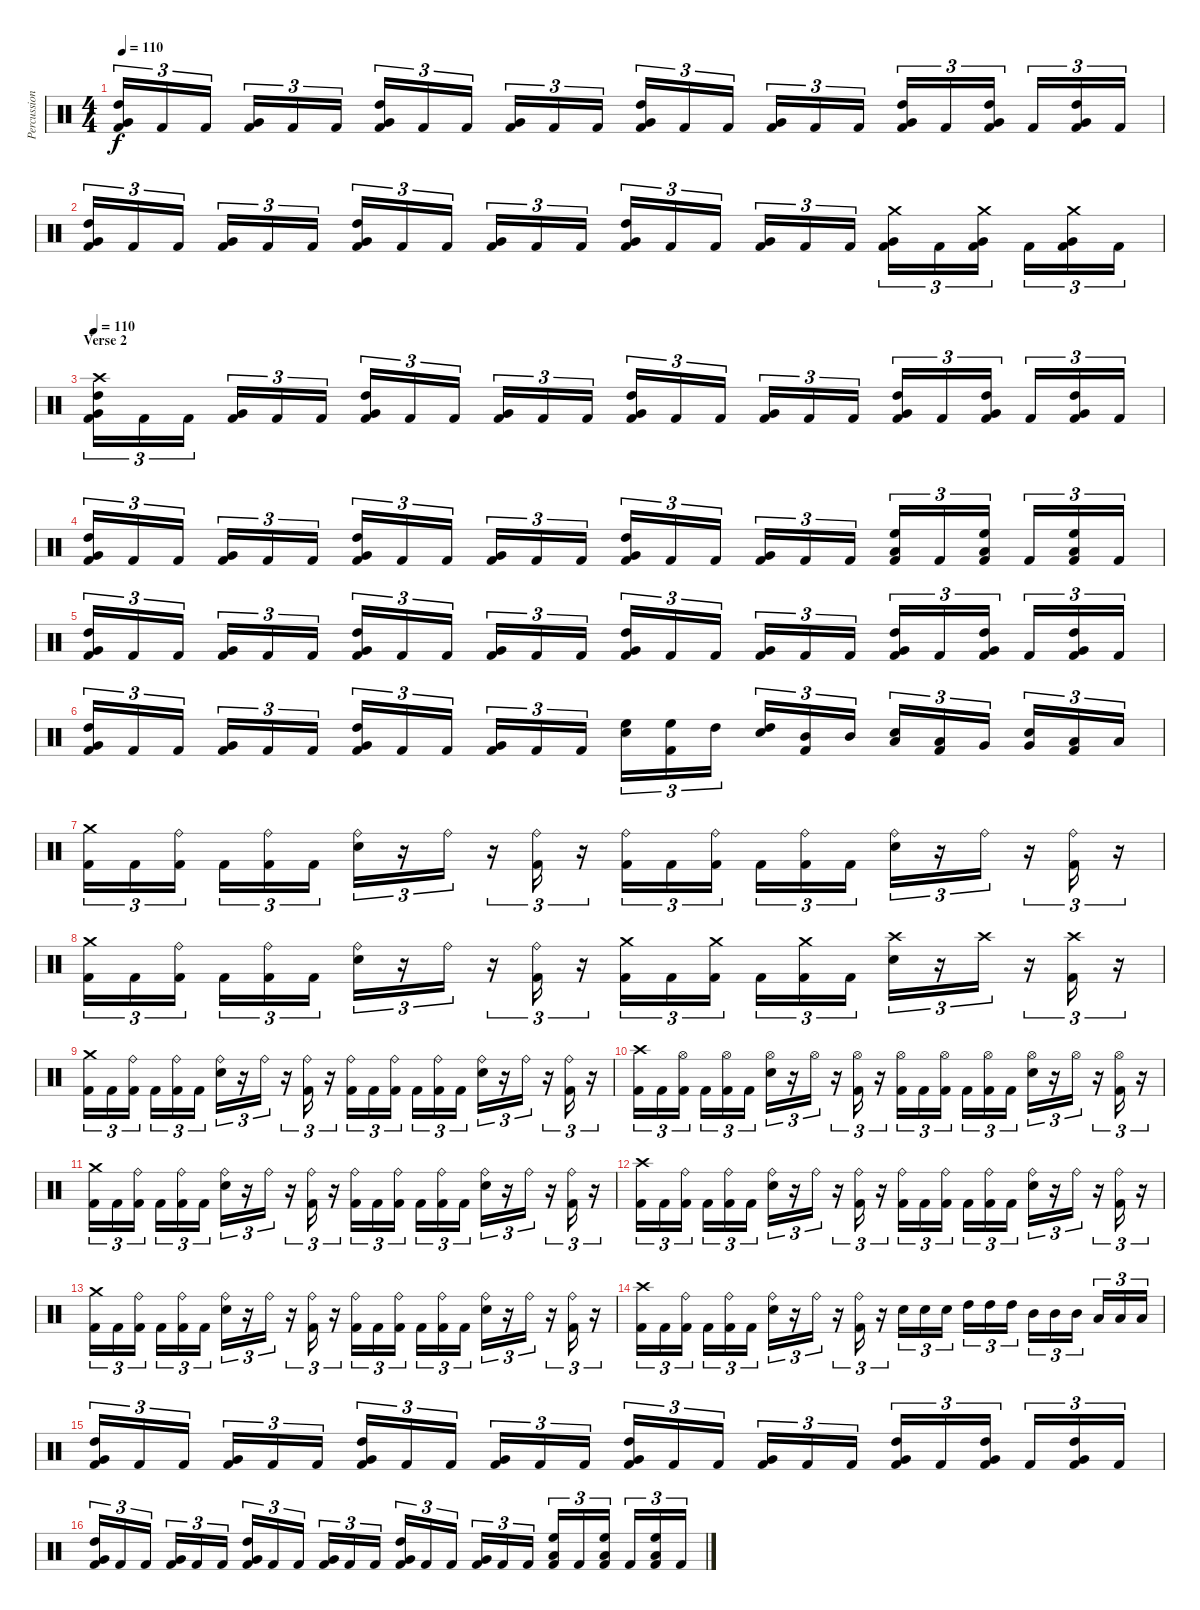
\track ("Percussion" "Percussion") {instrument percussion}
\staff {score}
\articulation defaults
\ts (4 4)
\tempo 110
\clef neutral
\ks c
("High Tom (hit)" "Very Low Tom (hit)" "Kick (hit) 2").16{tu (3 2) dy f volume 13} "Kick (hit) 2".16{tu (3 2)} "Kick (hit) 2".16{tu (3 2)} ("Very Low Tom (hit)" "Kick (hit) 2").16{tu (3 2)} "Kick (hit) 2".16{tu (3 2)} "Kick (hit) 2".16{tu (3 2)} ("High Tom (hit)" "Very Low Tom (hit)" "Kick (hit) 2").16{tu (3 2)} "Kick (hit) 2".16{tu (3 2)} "Kick (hit) 2".16{tu (3 2)} ("Very Low Tom (hit)" "Kick (hit) 2").16{tu (3 2)} "Kick (hit) 2".16{tu (3 2)} "Kick (hit) 2".16{tu (3 2)} ("High Tom (hit)" "Very Low Tom (hit)" "Kick (hit) 2").16{tu (3 2)} "Kick (hit) 2".16{tu (3 2)} "Kick (hit) 2".16{tu (3 2)} ("Very Low Tom (hit)" "Kick (hit) 2").16{tu (3 2)} "Kick (hit) 2".16{tu (3 2)} "Kick (hit) 2".16{tu (3 2)} ("High Tom (hit)" "Very Low Tom (hit)" "Kick (hit) 2").16{tu (3 2)} "Kick (hit) 2".16{tu (3 2)} ("High Tom (hit)" "Very Low Tom (hit)" "Kick (hit) 2").16{tu (3 2)} "Kick (hit) 2".16{tu (3 2)} ("High Tom (hit)" "Very Low Tom (hit)" "Kick (hit) 2").16{tu (3 2)} "Kick (hit) 2".16{tu (3 2)} |
("High Tom (hit)" "Very Low Tom (hit)" "Kick (hit) 2").16{tu (3 2)} "Kick (hit) 2".16{tu (3 2)} "Kick (hit) 2".16{tu (3 2)} ("Very Low Tom (hit)" "Kick (hit) 2").16{tu (3 2)} "Kick (hit) 2".16{tu (3 2)} "Kick (hit) 2".16{tu (3 2)} ("High Tom (hit)" "Very Low Tom (hit)" "Kick (hit) 2").16{tu (3 2)} "Kick (hit) 2".16{tu (3 2)} "Kick (hit) 2".16{tu (3 2)} ("Very Low Tom (hit)" "Kick (hit) 2").16{tu (3 2)} "Kick (hit) 2".16{tu (3 2)} "Kick (hit) 2".16{tu (3 2)} ("High Tom (hit)" "Very Low Tom (hit)" "Kick (hit) 2").16{tu (3 2)} "Kick (hit) 2".16{tu (3 2)} "Kick (hit) 2".16{tu (3 2)} ("Very Low Tom (hit)" "Kick (hit) 2").16{tu (3 2)} "Kick (hit) 2".16{tu (3 2)} "Kick (hit) 2".16{tu (3 2)} ("Crash medium (hit)" "Very Low Tom (hit)" "Kick (hit) 2").16{tu (3 2)} "Kick (hit) 2".16{tu (3 2)} ("Crash medium (hit)" "Very Low Tom (hit)" "Kick (hit) 2").16{tu (3 2)} "Kick (hit) 2".16{tu (3 2)} ("Crash medium (hit)" "Very Low Tom (hit)" "Kick (hit) 2").16{tu (3 2)} "Kick (hit) 2".16{tu (3 2)} |
\section ("" "Verse 2")
\tempo 110
("Crash high (hit)" "High Tom (hit)" "Very Low Tom (hit)" "Kick (hit) 2").16{tu (3 2)} "Kick (hit) 2".16{tu (3 2)} "Kick (hit) 2".16{tu (3 2)} ("Very Low Tom (hit)" "Kick (hit) 2").16{tu (3 2)} "Kick (hit) 2".16{tu (3 2)} "Kick (hit) 2".16{tu (3 2)} ("High Tom (hit)" "Very Low Tom (hit)" "Kick (hit) 2").16{tu (3 2)} "Kick (hit) 2".16{tu (3 2)} "Kick (hit) 2".16{tu (3 2)} ("Very Low Tom (hit)" "Kick (hit) 2").16{tu (3 2)} "Kick (hit) 2".16{tu (3 2)} "Kick (hit) 2".16{tu (3 2)} ("High Tom (hit)" "Very Low Tom (hit)" "Kick (hit) 2").16{tu (3 2)} "Kick (hit) 2".16{tu (3 2)} "Kick (hit) 2".16{tu (3 2)} ("Very Low Tom (hit)" "Kick (hit) 2").16{tu (3 2)} "Kick (hit) 2".16{tu (3 2)} "Kick (hit) 2".16{tu (3 2)} ("High Tom (hit)" "Very Low Tom (hit)" "Kick (hit) 2").16{tu (3 2)} "Kick (hit) 2".16{tu (3 2)} ("High Tom (hit)" "Very Low Tom (hit)" "Kick (hit) 2").16{tu (3 2)} "Kick (hit) 2".16{tu (3 2)} ("High Tom (hit)" "Very Low Tom (hit)" "Kick (hit) 2").16{tu (3 2)} "Kick (hit) 2".16{tu (3 2)} |
("High Tom (hit)" "Very Low Tom (hit)" "Kick (hit) 2").16{tu (3 2)} "Kick (hit) 2".16{tu (3 2)} "Kick (hit) 2".16{tu (3 2)} ("Very Low Tom (hit)" "Kick (hit) 2").16{tu (3 2)} "Kick (hit) 2".16{tu (3 2)} "Kick (hit) 2".16{tu (3 2)} ("High Tom (hit)" "Very Low Tom (hit)" "Kick (hit) 2").16{tu (3 2)} "Kick (hit) 2".16{tu (3 2)} "Kick (hit) 2".16{tu (3 2)} ("Very Low Tom (hit)" "Kick (hit) 2").16{tu (3 2)} "Kick (hit) 2".16{tu (3 2)} "Kick (hit) 2".16{tu (3 2)} ("High Tom (hit)" "Very Low Tom (hit)" "Kick (hit) 2").16{tu (3 2)} "Kick (hit) 2".16{tu (3 2)} "Kick (hit) 2".16{tu (3 2)} ("Very Low Tom (hit)" "Kick (hit) 2").16{tu (3 2)} "Kick (hit) 2".16{tu (3 2)} "Kick (hit) 2".16{tu (3 2)} ("High Floor Tom (hit)" "Low Tom (hit)" "Kick (hit) 2").16{tu (3 2)} "Kick (hit) 2".16{tu (3 2)} ("High Floor Tom (hit)" "Low Tom (hit)" "Kick (hit) 2").16{tu (3 2)} "Kick (hit) 2".16{tu (3 2)} ("High Floor Tom (hit)" "Low Tom (hit)" "Kick (hit) 2").16{tu (3 2)} "Kick (hit) 2".16{tu (3 2)} |
("High Tom (hit)" "Very Low Tom (hit)" "Kick (hit) 2").16{tu (3 2)} "Kick (hit) 2".16{tu (3 2)} "Kick (hit) 2".16{tu (3 2)} ("Very Low Tom (hit)" "Kick (hit) 2").16{tu (3 2)} "Kick (hit) 2".16{tu (3 2)} "Kick (hit) 2".16{tu (3 2)} ("High Tom (hit)" "Very Low Tom (hit)" "Kick (hit) 2").16{tu (3 2)} "Kick (hit) 2".16{tu (3 2)} "Kick (hit) 2".16{tu (3 2)} ("Very Low Tom (hit)" "Kick (hit) 2").16{tu (3 2)} "Kick (hit) 2".16{tu (3 2)} "Kick (hit) 2".16{tu (3 2)} ("High Tom (hit)" "Very Low Tom (hit)" "Kick (hit) 2").16{tu (3 2)} "Kick (hit) 2".16{tu (3 2)} "Kick (hit) 2".16{tu (3 2)} ("Very Low Tom (hit)" "Kick (hit) 2").16{tu (3 2)} "Kick (hit) 2".16{tu (3 2)} "Kick (hit) 2".16{tu (3 2)} ("High Tom (hit)" "Very Low Tom (hit)" "Kick (hit) 2").16{tu (3 2)} "Kick (hit) 2".16{tu (3 2)} ("High Tom (hit)" "Very Low Tom (hit)" "Kick (hit) 2").16{tu (3 2)} "Kick (hit) 2".16{tu (3 2)} ("High Tom (hit)" "Very Low Tom (hit)" "Kick (hit) 2").16{tu (3 2)} "Kick (hit) 2".16{tu (3 2)} |
("High Tom (hit)" "Very Low Tom (hit)" "Kick (hit) 2").16{tu (3 2)} "Kick (hit) 2".16{tu (3 2)} "Kick (hit) 2".16{tu (3 2)} ("Very Low Tom (hit)" "Kick (hit) 2").16{tu (3 2)} "Kick (hit) 2".16{tu (3 2)} "Kick (hit) 2".16{tu (3 2)} ("High Tom (hit)" "Very Low Tom (hit)" "Kick (hit) 2").16{tu (3 2)} "Kick (hit) 2".16{tu (3 2)} "Kick (hit) 2".16{tu (3 2)} ("Very Low Tom (hit)" "Kick (hit) 2").16{tu (3 2)} "Kick (hit) 2".16{tu (3 2)} "Kick (hit) 2".16{tu (3 2)} ("Electric Snare (hit)" "High Floor Tom (hit)").16{tu (3 2)} ("High Floor Tom (hit)" "Kick (hit) 2").16{tu (3 2)} "High Tom (hit)".16{tu (3 2)} ("Electric Snare (hit)" "High Tom (hit)").16{tu (3 2)} ("Mid Tom (hit)" "Kick (hit) 2").16{tu (3 2)} "Mid Tom (hit)".16{tu (3 2)} ("Electric Snare (hit)" "Low Tom (hit)").16{tu (3 2)} ("Low Tom (hit)" "Kick (hit) 2").16{tu (3 2)} "Very Low Tom (hit)".16{tu (3 2)} ("Electric Snare (hit)" "Very Low Tom (hit)").16{tu (3 2)} ("Low Floor Tom (hit)" "Kick (hit) 2").16{tu (3 2)} "Low Floor Tom (hit)".16{tu (3 2)} |
("Crash medium (hit)" "Kick (hit) 2").16{tu (3 2)} "Kick (hit) 2".16{tu (3 2)} ("Ride (bell)" "Kick (hit) 2").16{tu (3 2)} "Kick (hit) 2".16{tu (3 2)} ("Ride (bell)" "Kick (hit) 2").16{tu (3 2)} "Kick (hit) 2".16{tu (3 2)} ("Ride (bell)" "Electric Snare (hit)").16{tu (3 2)} r.16{tu (3 2)} "Ride (bell)".16{tu (3 2)} r.16{tu (3 2)} ("Ride (bell)" "Kick (hit) 2").16{tu (3 2)} r.16{tu (3 2)} ("Ride (bell)" "Kick (hit) 2").16{tu (3 2)} "Kick (hit) 2".16{tu (3 2)} ("Ride (bell)" "Kick (hit) 2").16{tu (3 2)} "Kick (hit) 2".16{tu (3 2)} ("Ride (bell)" "Kick (hit) 2").16{tu (3 2)} "Kick (hit) 2".16{tu (3 2)} ("Ride (bell)" "Electric Snare (hit)").16{tu (3 2)} r.16{tu (3 2)} "Ride (bell)".16{tu (3 2)} r.16{tu (3 2)} ("Ride (bell)" "Kick (hit) 2").16{tu (3 2)} r.16{tu (3 2)} |
("Crash medium (hit)" "Kick (hit) 2").16{tu (3 2)} "Kick (hit) 2".16{tu (3 2)} ("Ride (bell)" "Kick (hit) 2").16{tu (3 2)} "Kick (hit) 2".16{tu (3 2)} ("Ride (bell)" "Kick (hit) 2").16{tu (3 2)} "Kick (hit) 2".16{tu (3 2)} ("Ride (bell)" "Electric Snare (hit)").16{tu (3 2)} r.16{tu (3 2)} "Ride (bell)".16{tu (3 2)} r.16{tu (3 2)} ("Ride (bell)" "Kick (hit) 2").16{tu (3 2)} r.16{tu (3 2)} ("Crash medium (hit)" "Kick (hit) 2").16{tu (3 2)} "Kick (hit) 2".16{tu (3 2)} ("Crash medium (hit)" "Kick (hit) 2").16{tu (3 2)} "Kick (hit) 2".16{tu (3 2)} ("Crash medium (hit)" "Kick (hit) 2").16{tu (3 2)} "Kick (hit) 2".16{tu (3 2)} ("Crash high (hit)" "Electric Snare (hit)").16{tu (3 2)} r.16{tu (3 2)} "Crash high (hit)".16{tu (3 2)} r.16{tu (3 2)} ("Crash high (hit)" "Kick (hit) 2").16{tu (3 2)} r.16{tu (3 2)} |
("Crash medium (hit)" "Kick (hit) 2").16{tu (3 2)} "Kick (hit) 2".16{tu (3 2)} ("Ride (bell)" "Kick (hit) 2").16{tu (3 2)} "Kick (hit) 2".16{tu (3 2)} ("Ride (bell)" "Kick (hit) 2").16{tu (3 2)} "Kick (hit) 2".16{tu (3 2)} ("Ride (bell)" "Electric Snare (hit)").16{tu (3 2)} r.16{tu (3 2)} "Ride (bell)".16{tu (3 2)} r.16{tu (3 2)} ("Ride (bell)" "Kick (hit) 2").16{tu (3 2)} r.16{tu (3 2)} ("Ride (bell)" "Kick (hit) 2").16{tu (3 2)} "Kick (hit) 2".16{tu (3 2)} ("Ride (bell)" "Kick (hit) 2").16{tu (3 2)} "Kick (hit) 2".16{tu (3 2)} ("Ride (bell)" "Kick (hit) 2").16{tu (3 2)} "Kick (hit) 2".16{tu (3 2)} ("Ride (bell)" "Electric Snare (hit)").16{tu (3 2)} r.16{tu (3 2)} "Ride (bell)".16{tu (3 2)} r.16{tu (3 2)} ("Ride (bell)" "Kick (hit) 2").16{tu (3 2)} r.16{tu (3 2)} |
("Crash high (hit)" "Kick (hit) 2").16{tu (3 2)} "Kick (hit) 2".16{tu (3 2)} ("Hi-Hat (open)" "Kick (hit) 2").16{tu (3 2)} "Kick (hit) 2".16{tu (3 2)} ("Hi-Hat (open)" "Kick (hit) 2").16{tu (3 2)} "Kick (hit) 2".16{tu (3 2)} ("Hi-Hat (open)" "Electric Snare (hit)").16{tu (3 2)} r.16{tu (3 2)} "Hi-Hat (open)".16{tu (3 2)} r.16{tu (3 2)} ("Hi-Hat (open)" "Kick (hit) 2").16{tu (3 2)} r.16{tu (3 2)} ("Hi-Hat (open)" "Kick (hit) 2").16{tu (3 2)} "Kick (hit) 2".16{tu (3 2)} ("Hi-Hat (open)" "Kick (hit) 2").16{tu (3 2)} "Kick (hit) 2".16{tu (3 2)} ("Hi-Hat (open)" "Kick (hit) 2").16{tu (3 2)} "Kick (hit) 2".16{tu (3 2)} ("Hi-Hat (open)" "Electric Snare (hit)").16{tu (3 2)} r.16{tu (3 2)} "Hi-Hat (open)".16{tu (3 2)} r.16{tu (3 2)} ("Hi-Hat (open)" "Kick (hit) 2").16{tu (3 2)} r.16{tu (3 2)} |
("Crash medium (hit)" "Kick (hit) 2").16{tu (3 2)} "Kick (hit) 2".16{tu (3 2)} ("Ride (bell)" "Kick (hit) 2").16{tu (3 2)} "Kick (hit) 2".16{tu (3 2)} ("Ride (bell)" "Kick (hit) 2").16{tu (3 2)} "Kick (hit) 2".16{tu (3 2)} ("Ride (bell)" "Electric Snare (hit)").16{tu (3 2)} r.16{tu (3 2)} "Ride (bell)".16{tu (3 2)} r.16{tu (3 2)} ("Ride (bell)" "Kick (hit) 2").16{tu (3 2)} r.16{tu (3 2)} ("Ride (bell)" "Kick (hit) 2").16{tu (3 2)} "Kick (hit) 2".16{tu (3 2)} ("Ride (bell)" "Kick (hit) 2").16{tu (3 2)} "Kick (hit) 2".16{tu (3 2)} ("Ride (bell)" "Kick (hit) 2").16{tu (3 2)} "Kick (hit) 2".16{tu (3 2)} ("Ride (bell)" "Electric Snare (hit)").16{tu (3 2)} r.16{tu (3 2)} "Ride (bell)".16{tu (3 2)} r.16{tu (3 2)} ("Ride (bell)" "Kick (hit) 2").16{tu (3 2)} r.16{tu (3 2)} |
("Crash high (hit)" "Kick (hit) 2").16{tu (3 2)} "Kick (hit) 2".16{tu (3 2)} ("Ride (bell)" "Kick (hit) 2").16{tu (3 2)} "Kick (hit) 2".16{tu (3 2)} ("Ride (bell)" "Kick (hit) 2").16{tu (3 2)} "Kick (hit) 2".16{tu (3 2)} ("Ride (bell)" "Electric Snare (hit)").16{tu (3 2)} r.16{tu (3 2)} "Ride (bell)".16{tu (3 2)} r.16{tu (3 2)} ("Ride (bell)" "Kick (hit) 2").16{tu (3 2)} r.16{tu (3 2)} ("Ride (bell)" "Kick (hit) 2").16{tu (3 2)} "Kick (hit) 2".16{tu (3 2)} ("Ride (bell)" "Kick (hit) 2").16{tu (3 2)} "Kick (hit) 2".16{tu (3 2)} ("Ride (bell)" "Kick (hit) 2").16{tu (3 2)} "Kick (hit) 2".16{tu (3 2)} ("Ride (bell)" "Electric Snare (hit)").16{tu (3 2)} r.16{tu (3 2)} "Ride (bell)".16{tu (3 2)} r.16{tu (3 2)} ("Ride (bell)" "Kick (hit) 2").16{tu (3 2)} r.16{tu (3 2)} |
("Crash medium (hit)" "Kick (hit) 2").16{tu (3 2)} "Kick (hit) 2".16{tu (3 2)} ("Ride (bell)" "Kick (hit) 2").16{tu (3 2)} "Kick (hit) 2".16{tu (3 2)} ("Ride (bell)" "Kick (hit) 2").16{tu (3 2)} "Kick (hit) 2".16{tu (3 2)} ("Ride (bell)" "Electric Snare (hit)").16{tu (3 2)} r.16{tu (3 2)} "Ride (bell)".16{tu (3 2)} r.16{tu (3 2)} ("Ride (bell)" "Kick (hit) 2").16{tu (3 2)} r.16{tu (3 2)} ("Ride (bell)" "Kick (hit) 2").16{tu (3 2)} "Kick (hit) 2".16{tu (3 2)} ("Ride (bell)" "Kick (hit) 2").16{tu (3 2)} "Kick (hit) 2".16{tu (3 2)} ("Ride (bell)" "Kick (hit) 2").16{tu (3 2)} "Kick (hit) 2".16{tu (3 2)} ("Ride (bell)" "Electric Snare (hit)").16{tu (3 2)} r.16{tu (3 2)} "Ride (bell)".16{tu (3 2)} r.16{tu (3 2)} ("Ride (bell)" "Kick (hit) 2").16{tu (3 2)} r.16{tu (3 2)} |
("Crash high (hit)" "Kick (hit) 2").16{tu (3 2)} "Kick (hit) 2".16{tu (3 2)} ("Ride (bell)" "Kick (hit) 2").16{tu (3 2)} "Kick (hit) 2".16{tu (3 2)} ("Ride (bell)" "Kick (hit) 2").16{tu (3 2)} "Kick (hit) 2".16{tu (3 2)} ("Ride (bell)" "Electric Snare (hit)").16{tu (3 2)} r.16{tu (3 2)} "Ride (bell)".16{tu (3 2)} r.16{tu (3 2)} ("Ride (bell)" "Kick (hit) 2").16{tu (3 2)} r.16{tu (3 2)} "Electric Snare (hit)".16{tu (3 2)} "Electric Snare (hit)".16{tu (3 2)} "Electric Snare (hit)".16{tu (3 2)} "High Tom (hit)".16{tu (3 2)} "High Tom (hit)".16{tu (3 2)} "High Tom (hit)".16{tu (3 2)} "Mid Tom (hit)".16{tu (3 2)} "Mid Tom (hit)".16{tu (3 2)} "Mid Tom (hit)".16{tu (3 2)} "Low Tom (hit)".16{tu (3 2)} "Low Tom (hit)".16{tu (3 2)} "Low Tom (hit)".16{tu (3 2)} |
("High Tom (hit)" "Very Low Tom (hit)" "Kick (hit) 2").16{tu (3 2)} "Kick (hit) 2".16{tu (3 2)} "Kick (hit) 2".16{tu (3 2)} ("Very Low Tom (hit)" "Kick (hit) 2").16{tu (3 2)} "Kick (hit) 2".16{tu (3 2)} "Kick (hit) 2".16{tu (3 2)} ("High Tom (hit)" "Very Low Tom (hit)" "Kick (hit) 2").16{tu (3 2)} "Kick (hit) 2".16{tu (3 2)} "Kick (hit) 2".16{tu (3 2)} ("Very Low Tom (hit)" "Kick (hit) 2").16{tu (3 2)} "Kick (hit) 2".16{tu (3 2)} "Kick (hit) 2".16{tu (3 2)} ("High Tom (hit)" "Very Low Tom (hit)" "Kick (hit) 2").16{tu (3 2)} "Kick (hit) 2".16{tu (3 2)} "Kick (hit) 2".16{tu (3 2)} ("Very Low Tom (hit)" "Kick (hit) 2").16{tu (3 2)} "Kick (hit) 2".16{tu (3 2)} "Kick (hit) 2".16{tu (3 2)} ("High Tom (hit)" "Very Low Tom (hit)" "Kick (hit) 2").16{tu (3 2)} "Kick (hit) 2".16{tu (3 2)} ("High Tom (hit)" "Very Low Tom (hit)" "Kick (hit) 2").16{tu (3 2)} "Kick (hit) 2".16{tu (3 2)} ("High Tom (hit)" "Very Low Tom (hit)" "Kick (hit) 2").16{tu (3 2)} "Kick (hit) 2".16{tu (3 2)} |
("High Tom (hit)" "Very Low Tom (hit)" "Kick (hit) 2").16{tu (3 2)} "Kick (hit) 2".16{tu (3 2)} "Kick (hit) 2".16{tu (3 2)} ("Very Low Tom (hit)" "Kick (hit) 2").16{tu (3 2)} "Kick (hit) 2".16{tu (3 2)} "Kick (hit) 2".16{tu (3 2)} ("High Tom (hit)" "Very Low Tom (hit)" "Kick (hit) 2").16{tu (3 2)} "Kick (hit) 2".16{tu (3 2)} "Kick (hit) 2".16{tu (3 2)} ("Very Low Tom (hit)" "Kick (hit) 2").16{tu (3 2)} "Kick (hit) 2".16{tu (3 2)} "Kick (hit) 2".16{tu (3 2)} ("High Tom (hit)" "Very Low Tom (hit)" "Kick (hit) 2").16{tu (3 2)} "Kick (hit) 2".16{tu (3 2)} "Kick (hit) 2".16{tu (3 2)} ("Very Low Tom (hit)" "Kick (hit) 2").16{tu (3 2)} "Kick (hit) 2".16{tu (3 2)} "Kick (hit) 2".16{tu (3 2)} ("High Floor Tom (hit)" "Low Tom (hit)" "Kick (hit) 2").16{tu (3 2)} "Kick (hit) 2".16{tu (3 2)} ("High Floor Tom (hit)" "Low Tom (hit)" "Kick (hit) 2").16{tu (3 2)} "Kick (hit) 2".16{tu (3 2)} ("High Floor Tom (hit)" "Low Tom (hit)" "Kick (hit) 2").16{tu (3 2)} "Kick (hit) 2".16{tu (3 2)}
